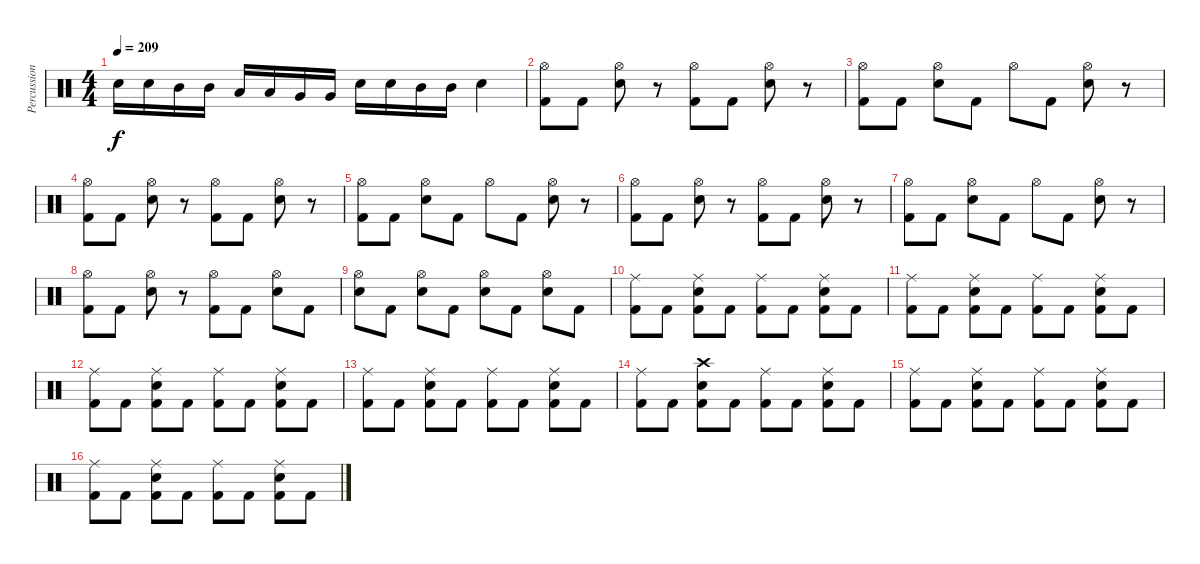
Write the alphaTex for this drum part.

\track ("Percussion" "Percussion") {instrument percussion}
\staff {score}
\articulation defaults
\ts (4 4)
\tempo 209
\clef neutral
\ks c "Electric Snare (hit)".16{dy f} "Electric Snare (hit)".16 "Mid Tom (hit)".16 "Mid Tom (hit)".16 "Low Tom (hit)".16 "Low Tom (hit)".16 "Very Low Tom (hit)".16 "Very Low Tom (hit)".16 "Electric Snare (hit)".16 "Electric Snare (hit)".16 "Mid Tom (hit)".16 "Mid Tom (hit)".16 "Electric Snare (hit)".4
|
("Hi-Hat (open)" "Kick (hit) 2").8 "Kick (hit) 2".8 ("Hi-Hat (open)" "Electric Snare (hit)").8 r.8 ("Hi-Hat (open)" "Kick (hit) 2").8 "Kick (hit) 2".8 ("Hi-Hat (open)" "Electric Snare (hit)").8 r.8 |
("Hi-Hat (open)" "Kick (hit) 2").8 "Kick (hit) 2".8 ("Hi-Hat (open)" "Electric Snare (hit)").8 "Kick (hit) 2".8 "Hi-Hat (open)".8 "Kick (hit) 2".8 ("Hi-Hat (open)" "Electric Snare (hit)").8 r.8 |
("Hi-Hat (open)" "Kick (hit) 2").8 "Kick (hit) 2".8 ("Hi-Hat (open)" "Electric Snare (hit)").8 r.8 ("Hi-Hat (open)" "Kick (hit) 2").8 "Kick (hit) 2".8 ("Hi-Hat (open)" "Electric Snare (hit)").8 r.8 |
("Hi-Hat (open)" "Kick (hit) 2").8 "Kick (hit) 2".8 ("Hi-Hat (open)" "Electric Snare (hit)").8 "Kick (hit) 2".8 "Hi-Hat (open)".8 "Kick (hit) 2".8 ("Hi-Hat (open)" "Electric Snare (hit)").8 r.8 |
("Hi-Hat (open)" "Kick (hit) 2").8 "Kick (hit) 2".8 ("Hi-Hat (open)" "Electric Snare (hit)").8 r.8 ("Hi-Hat (open)" "Kick (hit) 2").8 "Kick (hit) 2".8 ("Hi-Hat (open)" "Electric Snare (hit)").8 r.8 |
("Hi-Hat (open)" "Kick (hit) 2").8 "Kick (hit) 2".8 ("Hi-Hat (open)" "Electric Snare (hit)").8 "Kick (hit) 2".8 "Hi-Hat (open)".8 "Kick (hit) 2".8 ("Hi-Hat (open)" "Electric Snare (hit)").8 r.8 |
("Hi-Hat (open)" "Kick (hit) 2").8 "Kick (hit) 2".8 ("Hi-Hat (open)" "Electric Snare (hit)").8 r.8 ("Hi-Hat (open)" "Kick (hit) 2").8 "Kick (hit) 2".8 ("Hi-Hat (open)" "Electric Snare (hit)").8 "Kick (hit) 2".8 |
("Hi-Hat (open)" "Electric Snare (hit)").8 "Kick (hit) 2".8 ("Hi-Hat (open)" "Electric Snare (hit)").8 "Kick (hit) 2".8 ("Hi-Hat (open)" "Electric Snare (hit)").8 "Kick (hit) 2".8 ("Hi-Hat (open)" "Electric Snare (hit)").8 "Kick (hit) 2".8 |
("Ride (middle)" "Kick (hit) 2").8 "Kick (hit) 2".8 ("Ride (middle)" "Electric Snare (hit)" "Kick (hit) 2").8 "Kick (hit) 2".8 ("Ride (middle)" "Kick (hit) 2").8 "Kick (hit) 2".8 ("Ride (middle)" "Electric Snare (hit)" "Kick (hit) 2").8 "Kick (hit) 2".8 |
("Ride (middle)" "Kick (hit) 2").8 "Kick (hit) 2".8 ("Ride (middle)" "Electric Snare (hit)" "Kick (hit) 2").8 "Kick (hit) 2".8 ("Ride (middle)" "Kick (hit) 2").8 "Kick (hit) 2".8 ("Ride (middle)" "Electric Snare (hit)" "Kick (hit) 2").8 "Kick (hit) 2".8 |
("Ride (middle)" "Kick (hit) 2").8 "Kick (hit) 2".8 ("Ride (middle)" "Electric Snare (hit)" "Kick (hit) 2").8 "Kick (hit) 2".8 ("Ride (middle)" "Kick (hit) 2").8 "Kick (hit) 2".8 ("Ride (middle)" "Electric Snare (hit)" "Kick (hit) 2").8 "Kick (hit) 2".8 |
("Ride (middle)" "Kick (hit) 2").8 "Kick (hit) 2".8 ("Ride (middle)" "Electric Snare (hit)" "Kick (hit) 2").8 "Kick (hit) 2".8 ("Ride (middle)" "Kick (hit) 2").8 "Kick (hit) 2".8 ("Ride (middle)" "Electric Snare (hit)" "Kick (hit) 2").8 "Kick (hit) 2".8 |
("Ride (middle)" "Kick (hit) 2").8 "Kick (hit) 2".8 ("Crash high (hit)" "Electric Snare (hit)" "Kick (hit) 2").8 "Kick (hit) 2".8 ("Ride (middle)" "Kick (hit) 2").8 "Kick (hit) 2".8 ("Ride (middle)" "Electric Snare (hit)" "Kick (hit) 2").8 "Kick (hit) 2".8 |
("Ride (middle)" "Kick (hit) 2").8 "Kick (hit) 2".8 ("Ride (middle)" "Electric Snare (hit)" "Kick (hit) 2").8 "Kick (hit) 2".8 ("Ride (middle)" "Kick (hit) 2").8 "Kick (hit) 2".8 ("Ride (middle)" "Electric Snare (hit)" "Kick (hit) 2").8 "Kick (hit) 2".8 |
("Ride (middle)" "Kick (hit) 2").8 "Kick (hit) 2".8 ("Ride (middle)" "Electric Snare (hit)" "Kick (hit) 2").8 "Kick (hit) 2".8 ("Ride (middle)" "Kick (hit) 2").8 "Kick (hit) 2".8 ("Ride (middle)" "Electric Snare (hit)" "Kick (hit) 2").8 "Kick (hit) 2".8
